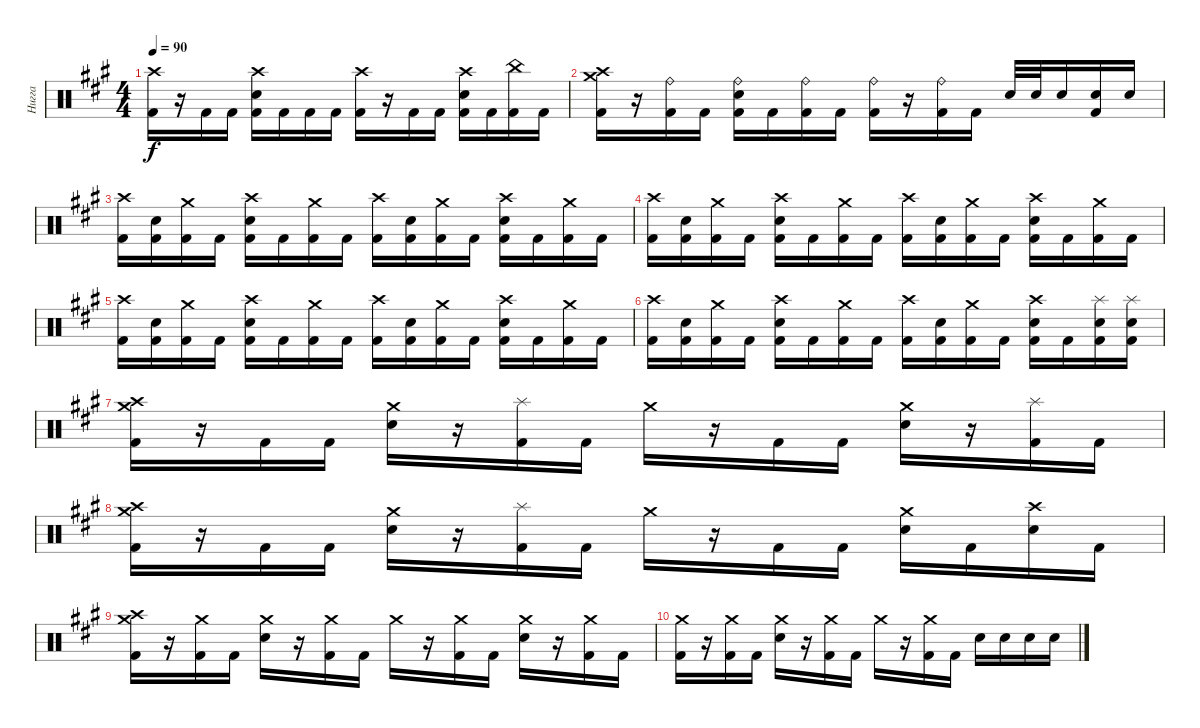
\track ("Нигга" "Нигга") {instrument percussion}
\staff
\articulation defaults
\ts (4 4)
\tempo 90
\clef neutral
\ks f#minor
("Crash high (hit)" "Kick (hit) 2").16{dy f} r.16 "Kick (hit) 2".16 "Kick (hit) 2".16 ("Crash high (hit)" "Electric Snare (hit)" "Kick (hit) 2").16 "Kick (hit) 2".16 "Kick (hit) 2".16 "Kick (hit) 2".16 ("Crash high (hit)" "Kick (hit) 2").16 r.16 "Kick (hit) 2".16 "Kick (hit) 2".16 ("Crash high (hit)" "Electric Snare (hit)" "Kick (hit) 2").16 "Kick (hit) 2".16 ("China (hit)" "Kick (hit) 2").16 "Kick (hit) 2".16 |
("Crash high (hit)" "Crash medium (hit)" "Kick (hit) 2").16 r.16 ("Ride (bell)" "Kick (hit) 2").16 "Kick (hit) 2".16 ("Ride (bell)" "Electric Snare (hit)" "Kick (hit) 2").16 "Kick (hit) 2".16 ("Ride (bell)" "Kick (hit) 2").16 "Kick (hit) 2".16 ("Ride (bell)" "Kick (hit) 2").16 r.16 ("Ride (bell)" "Kick (hit) 2").16 "Kick (hit) 2".16 "Electric Snare (hit)".32 "Electric Snare (hit)".32 "Electric Snare (hit)".16 ("Electric Snare (hit)" "Kick (hit) 2").16 "Electric Snare (hit)".16 |
("Crash high (hit)" "Kick (hit) 2").16 ("Electric Snare (hit)" "Kick (hit) 2").16 ("Crash medium (hit)" "Kick (hit) 2").16 "Kick (hit) 2".16 ("Crash high (hit)" "Electric Snare (hit)" "Kick (hit) 2").16 "Kick (hit) 2".16 ("Crash medium (hit)" "Kick (hit) 2").16 "Kick (hit) 2".16 ("Crash high (hit)" "Kick (hit) 2").16 ("Electric Snare (hit)" "Kick (hit) 2").16 ("Crash medium (hit)" "Kick (hit) 2").16 "Kick (hit) 2".16 ("Crash high (hit)" "Electric Snare (hit)" "Kick (hit) 2").16 "Kick (hit) 2".16 ("Crash medium (hit)" "Kick (hit) 2").16 "Kick (hit) 2".16 |
("Crash high (hit)" "Kick (hit) 2").16 ("Electric Snare (hit)" "Kick (hit) 2").16 ("Crash medium (hit)" "Kick (hit) 2").16 "Kick (hit) 2".16 ("Crash high (hit)" "Electric Snare (hit)" "Kick (hit) 2").16 "Kick (hit) 2".16 ("Crash medium (hit)" "Kick (hit) 2").16 "Kick (hit) 2".16 ("Crash high (hit)" "Kick (hit) 2").16 ("Electric Snare (hit)" "Kick (hit) 2").16 ("Crash medium (hit)" "Kick (hit) 2").16 "Kick (hit) 2".16 ("Crash high (hit)" "Electric Snare (hit)" "Kick (hit) 2").16 "Kick (hit) 2".16 ("Crash medium (hit)" "Kick (hit) 2").16 "Kick (hit) 2".16 |
("Crash high (hit)" "Kick (hit) 2").16 ("Electric Snare (hit)" "Kick (hit) 2").16 ("Crash medium (hit)" "Kick (hit) 2").16 "Kick (hit) 2".16 ("Crash high (hit)" "Electric Snare (hit)" "Kick (hit) 2").16 "Kick (hit) 2".16 ("Crash medium (hit)" "Kick (hit) 2").16 "Kick (hit) 2".16 ("Crash high (hit)" "Kick (hit) 2").16 ("Electric Snare (hit)" "Kick (hit) 2").16 ("Crash medium (hit)" "Kick (hit) 2").16 "Kick (hit) 2".16 ("Crash high (hit)" "Electric Snare (hit)" "Kick (hit) 2").16 "Kick (hit) 2".16 ("Crash medium (hit)" "Kick (hit) 2").16 "Kick (hit) 2".16 |
("Crash high (hit)" "Kick (hit) 2").16 ("Electric Snare (hit)" "Kick (hit) 2").16 ("Crash medium (hit)" "Kick (hit) 2").16 "Kick (hit) 2".16 ("Crash high (hit)" "Electric Snare (hit)" "Kick (hit) 2").16 "Kick (hit) 2".16 ("Crash medium (hit)" "Kick (hit) 2").16 "Kick (hit) 2".16 ("Crash high (hit)" "Kick (hit) 2").16 ("Electric Snare (hit)" "Kick (hit) 2").16 ("Crash medium (hit)" "Kick (hit) 2").16 "Kick (hit) 2".16 ("Crash high (hit)" "Electric Snare (hit)" "Kick (hit) 2").16 "Kick (hit) 2".16 ("Splash (hit)" "Electric Snare (hit)" "Kick (hit) 2").16 ("Splash (hit)" "Electric Snare (hit)" "Kick (hit) 2").16 |
("Crash high (hit)" "Crash medium (hit)" "Kick (hit) 2").16 r.16 "Kick (hit) 2".16 "Kick (hit) 2".16 ("Crash medium (hit)" "Electric Snare (hit)").16 r.16 ("Splash (hit)" "Kick (hit) 2").16 "Kick (hit) 2".16 "Crash medium (hit)".16 r.16 "Kick (hit) 2".16 "Kick (hit) 2".16 ("Crash medium (hit)" "Electric Snare (hit)").16 r.16 ("Splash (hit)" "Kick (hit) 2").16 "Kick (hit) 2".16 |
("Crash high (hit)" "Crash medium (hit)" "Kick (hit) 2").16 r.16 "Kick (hit) 2".16 "Kick (hit) 2".16 ("Crash medium (hit)" "Electric Snare (hit)").16 r.16 ("Splash (hit)" "Kick (hit) 2").16 "Kick (hit) 2".16 "Crash medium (hit)".16 r.16 "Kick (hit) 2".16 "Kick (hit) 2".16 ("Crash medium (hit)" "Electric Snare (hit)").16 "Kick (hit) 2".16 ("Crash high (hit)" "Electric Snare (hit)").16 "Kick (hit) 2".16 |
("Crash high (hit)" "Crash medium (hit)" "Kick (hit) 2").16 r.16 ("Crash medium (hit)" "Kick (hit) 2").16 "Kick (hit) 2".16 ("Crash medium (hit)" "Electric Snare (hit)").16 r.16 ("Crash medium (hit)" "Kick (hit) 2").16 "Kick (hit) 2".16 "Crash medium (hit)".16 r.16 ("Crash medium (hit)" "Kick (hit) 2").16 "Kick (hit) 2".16 ("Crash medium (hit)" "Electric Snare (hit)").16 r.16 ("Crash medium (hit)" "Kick (hit) 2").16 "Kick (hit) 2".16 |
("Crash medium (hit)" "Kick (hit) 2").16 r.16 ("Crash medium (hit)" "Kick (hit) 2").16 "Kick (hit) 2".16 ("Crash medium (hit)" "Electric Snare (hit)").16 r.16 ("Crash medium (hit)" "Kick (hit) 2").16 "Kick (hit) 2".16 "Crash medium (hit)".16 r.16 ("Crash medium (hit)" "Kick (hit) 2").16 "Kick (hit) 2".16 "Electric Snare (hit)".16 "Electric Snare (hit)".16 "Electric Snare (hit)".16 "Electric Snare (hit)".16
